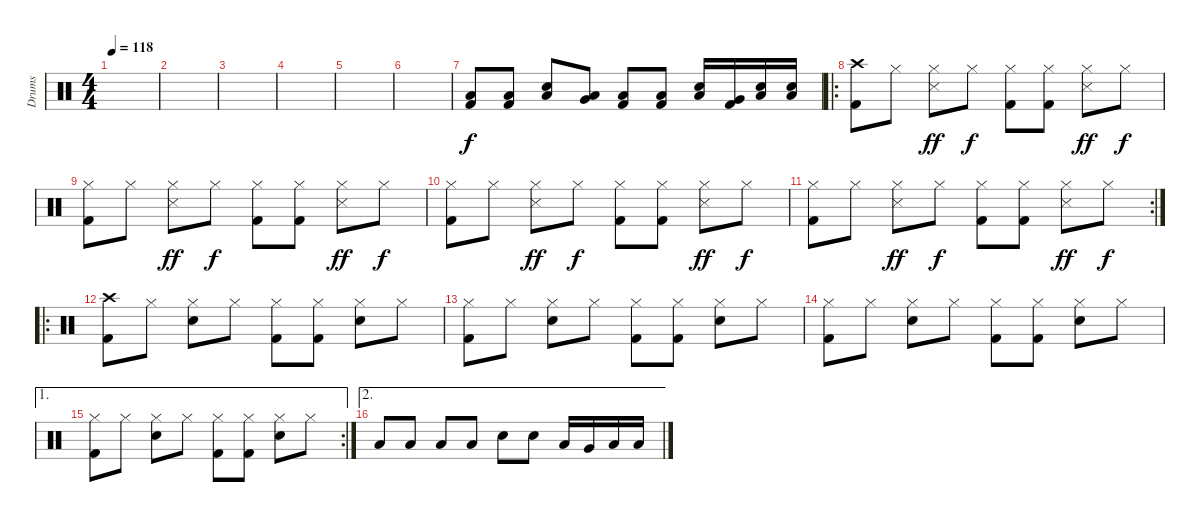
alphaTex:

\track ("Drums" "Drums") {instrument percussion}
\staff {score}
\articulation defaults
\ts (4 4)
\tempo 118
\clef neutral
\ks c
|
|
|
|
|
|
("Low Tom (hit)" "Kick (hit) 2").8 ("Low Tom (hit)" "Kick (hit) 2").8 ("Low Floor Tom (hit)" "Electric Snare (hit)").8 ("Very Low Tom (hit)" "Low Floor Tom (hit)").8 ("Low Tom (hit)" "Kick (hit) 2").8 ("Low Tom (hit)" "Kick (hit) 2").8 ("Electric Snare (hit)" "Low Floor Tom (hit)").16 ("Kick (hit) 2" "Very Low Tom (hit)").16 ("Electric Snare (hit)" "Low Floor Tom (hit)").16 ("Electric Snare (hit)" "Low Floor Tom (hit)").16 |
\ro
("Crash high (hit)" "Kick (hit) 2").8 "Hi-Hat (closed)".8 ("Hi-Hat (closed)" "Snare (side stick) 3").8{dy ff} "Hi-Hat (closed)".8{dy f} ("Hi-Hat (closed)" "Kick (hit) 2").8 ("Hi-Hat (closed)" "Kick (hit) 2").8 ("Hi-Hat (closed)" "Snare (side stick) 3").8{dy ff} "Hi-Hat (closed)".8{dy f} |
("Hi-Hat (closed)" "Kick (hit) 2").8 "Hi-Hat (closed)".8 ("Hi-Hat (closed)" "Snare (side stick) 3").8{dy ff} "Hi-Hat (closed)".8{dy f} ("Hi-Hat (closed)" "Kick (hit) 2").8 ("Hi-Hat (closed)" "Kick (hit) 2").8 ("Hi-Hat (closed)" "Snare (side stick) 3").8{dy ff} "Hi-Hat (closed)".8{dy f} |
("Hi-Hat (closed)" "Kick (hit) 2").8 "Hi-Hat (closed)".8 ("Hi-Hat (closed)" "Snare (side stick) 3").8{dy ff} "Hi-Hat (closed)".8{dy f} ("Hi-Hat (closed)" "Kick (hit) 2").8 ("Hi-Hat (closed)" "Kick (hit) 2").8 ("Hi-Hat (closed)" "Snare (side stick) 3").8{dy ff} "Hi-Hat (closed)".8{dy f} |
\rc 2
("Hi-Hat (closed)" "Kick (hit) 2").8 "Hi-Hat (closed)".8 ("Hi-Hat (closed)" "Snare (side stick) 3").8{dy ff} "Hi-Hat (closed)".8{dy f} ("Hi-Hat (closed)" "Kick (hit) 2").8 ("Hi-Hat (closed)" "Kick (hit) 2").8 ("Hi-Hat (closed)" "Snare (side stick) 3").8{dy ff} "Hi-Hat (closed)".8{dy f} |
\ro
("Crash high (hit)" "Kick (hit) 2").8 "Hi-Hat (closed)".8 ("Hi-Hat (closed)" "Electric Snare (hit)").8 "Hi-Hat (closed)".8 ("Hi-Hat (closed)" "Kick (hit) 2").8 ("Hi-Hat (closed)" "Kick (hit) 2").8 ("Hi-Hat (closed)" "Electric Snare (hit)").8 "Hi-Hat (closed)".8 |
("Hi-Hat (closed)" "Kick (hit) 2").8 "Hi-Hat (closed)".8 ("Hi-Hat (closed)" "Electric Snare (hit)").8 "Hi-Hat (closed)".8 ("Hi-Hat (closed)" "Kick (hit) 2").8 ("Hi-Hat (closed)" "Kick (hit) 2").8 ("Hi-Hat (closed)" "Electric Snare (hit)").8 "Hi-Hat (closed)".8 |
("Hi-Hat (closed)" "Kick (hit) 2").8 "Hi-Hat (closed)".8 ("Hi-Hat (closed)" "Electric Snare (hit)").8 "Hi-Hat (closed)".8 ("Hi-Hat (closed)" "Kick (hit) 2").8 ("Hi-Hat (closed)" "Kick (hit) 2").8 ("Hi-Hat (closed)" "Electric Snare (hit)").8 "Hi-Hat (closed)".8 |
\ae 1
\rc 2
("Hi-Hat (closed)" "Kick (hit) 2").8 "Hi-Hat (closed)".8 ("Hi-Hat (closed)" "Electric Snare (hit)").8 "Hi-Hat (closed)".8 ("Hi-Hat (closed)" "Kick (hit) 2").8 ("Hi-Hat (closed)" "Kick (hit) 2").8 ("Hi-Hat (closed)" "Electric Snare (hit)").8 "Hi-Hat (closed)".8 |
\ae 2 "Low Tom (hit)".8 "Low Tom (hit)".8 "Low Floor Tom (hit)".8 "Low Floor Tom (hit)".8 "Electric Snare (hit)".8 "Electric Snare (hit)".8 "Low Floor Tom (hit)".16 "Very Low Tom (hit)".16 "Low Floor Tom (hit)".16 "Low Floor Tom (hit)".16
